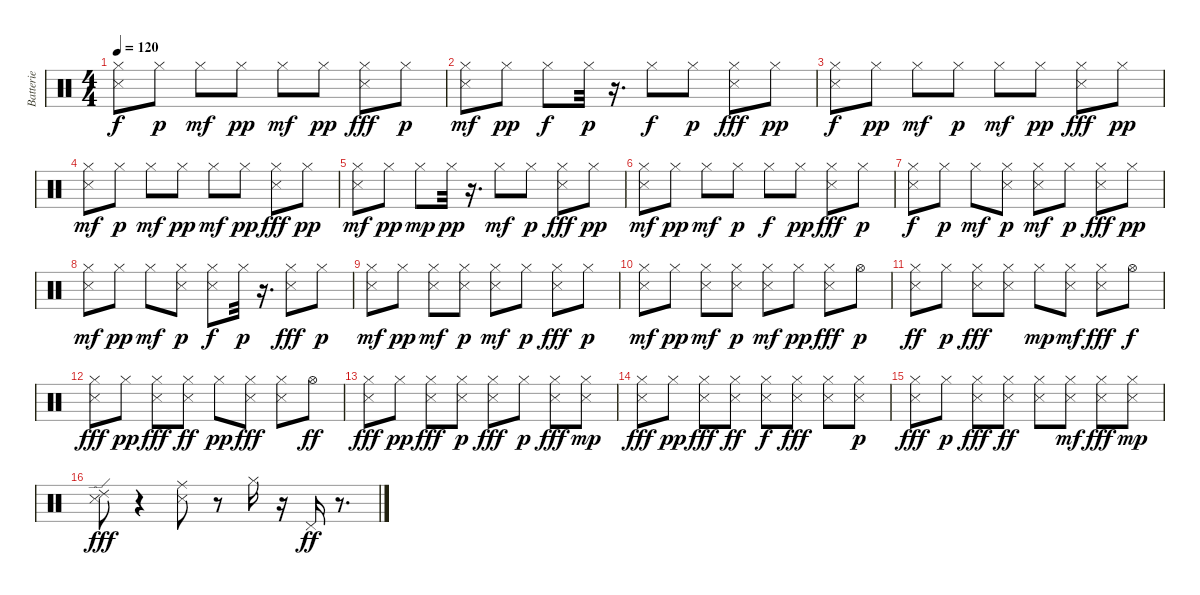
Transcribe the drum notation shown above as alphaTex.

\track ("Batterie" "Batterie") {instrument percussion}
\staff {score}
\articulation defaults
\ts (4 4)
\tempo 120
\clef neutral
\ks c
("Metronome (hit)" "Hi-Hat (closed)").8{dy f} "Hi-Hat (closed)".8{dy p} "Hi-Hat (closed)".8{dy mf} "Hi-Hat (closed)".8{dy pp} "Hi-Hat (closed)".8{dy mf} "Hi-Hat (closed)".8{dy pp} ("Snare (side stick) 3" "Hi-Hat (closed)").8{dy fff} "Hi-Hat (closed)".8{dy p} |
("Metronome (hit)" "Hi-Hat (closed)").8{dy mf} "Hi-Hat (closed)".8{dy pp} "Hi-Hat (closed)".8{dy f} "Hi-Hat (closed)".32{dy p} r.16{d} "Hi-Hat (closed)".8{dy f} "Hi-Hat (closed)".8{dy p} ("Snare (side stick) 3" "Hi-Hat (closed)").8{dy fff} "Hi-Hat (closed)".8{dy pp} |
("Metronome (hit)" "Hi-Hat (closed)").8{dy f} "Hi-Hat (closed)".8{dy pp} "Hi-Hat (closed)".8{dy mf} "Hi-Hat (closed)".8{dy p} "Hi-Hat (closed)".8{dy mf} "Hi-Hat (closed)".8{dy pp} ("Snare (side stick) 3" "Hi-Hat (closed)").8{dy fff} "Hi-Hat (closed)".8{dy pp} |
("Metronome (hit)" "Hi-Hat (closed)").8{dy mf} "Hi-Hat (closed)".8{dy p} "Hi-Hat (closed)".8{dy mf} "Hi-Hat (closed)".8{dy pp} "Hi-Hat (closed)".8{dy mf} "Hi-Hat (closed)".8{dy pp} ("Snare (side stick) 3" "Hi-Hat (closed)").8{dy fff} "Hi-Hat (closed)".8{dy pp} |
("Metronome (hit)" "Hi-Hat (closed)").8{dy mf} "Hi-Hat (closed)".8{dy pp} "Hi-Hat (closed)".8{dy mp} "Hi-Hat (closed)".32{dy pp} r.16{d} "Hi-Hat (closed)".8{dy mf} "Hi-Hat (closed)".8{dy p} ("Snare (side stick) 3" "Hi-Hat (closed)").8{dy fff} "Hi-Hat (closed)".8{dy pp} |
("Metronome (hit)" "Hi-Hat (closed)").8{dy mf} "Hi-Hat (closed)".8{dy pp} "Hi-Hat (closed)".8{dy mf} "Hi-Hat (closed)".8{dy p} "Hi-Hat (closed)".8{dy f} "Hi-Hat (closed)".8{dy pp} ("Snare (side stick) 3" "Hi-Hat (closed)").8{dy fff} "Hi-Hat (closed)".8{dy p} |
("Metronome (hit)" "Hi-Hat (closed)").8{dy f} "Hi-Hat (closed)".8{dy p} "Hi-Hat (closed)".8{dy mf} ("Metronome (hit)" "Hi-Hat (closed)").8{dy p} ("Metronome (hit)" "Hi-Hat (closed)").8{dy mf} "Hi-Hat (closed)".8{dy p} ("Snare (side stick) 3" "Hi-Hat (closed)").8{dy fff} "Hi-Hat (closed)".8{dy pp} |
("Metronome (hit)" "Hi-Hat (closed)").8{dy mf} "Hi-Hat (closed)".8{dy pp} "Hi-Hat (closed)".8{dy mf} ("Metronome (hit)" "Hi-Hat (closed)").8{dy p} ("Metronome (hit)" "Hi-Hat (closed)").8{dy f} "Hi-Hat (closed)".32{dy p} r.16{d} ("Snare (side stick) 3" "Hi-Hat (closed)").8{dy fff} "Hi-Hat (closed)".8{dy p} |
("Metronome (hit)" "Hi-Hat (closed)").8{dy mf} "Hi-Hat (closed)".8{dy pp} ("Snare (side stick) 3" "Hi-Hat (closed)").8{dy mf} ("Metronome (hit)" "Hi-Hat (closed)").8{dy p} ("Metronome (hit)" "Hi-Hat (closed)").8{dy mf} "Hi-Hat (closed)".8{dy p} ("Snare (side stick) 3" "Hi-Hat (closed)").8{dy fff} "Hi-Hat (closed)".8{dy p} |
("Metronome (hit)" "Hi-Hat (closed)").8{dy mf} "Hi-Hat (closed)".8{dy pp} ("Snare (side stick) 3" "Hi-Hat (closed)").8{dy mf} ("Metronome (hit)" "Hi-Hat (closed)").8{dy p} ("Metronome (hit)" "Hi-Hat (closed)").8{dy mf} "Hi-Hat (closed)".8{dy pp} ("Snare (side stick) 3" "Hi-Hat (closed)").8{dy fff} "Hi-Hat (open)".8{dy p} |
("Metronome (hit)" "Hi-Hat (closed)").8{dy ff} "Hi-Hat (closed)".8{dy p} ("Snare (side stick) 3" "Hi-Hat (closed)").8{dy fff} ("Metronome (hit)" "Hi-Hat (closed)").8 "Hi-Hat (closed)".8{dy mp} ("Metronome (hit)" "Hi-Hat (closed)").8{dy mf} ("Snare (side stick) 3" "Hi-Hat (closed)").8{dy fff} "Hi-Hat (open)".8{dy f} |
("Metronome (hit)" "Hi-Hat (closed)").8{dy fff} "Hi-Hat (closed)".8{dy pp} ("Snare (side stick) 3" "Hi-Hat (closed)").8{dy fff} ("Metronome (hit)" "Hi-Hat (closed)").8{dy ff} "Hi-Hat (closed)".8{dy pp} ("Metronome (hit)" "Hi-Hat (closed)").8{dy fff} ("Snare (side stick) 3" "Hi-Hat (closed)").8 "Hi-Hat (open)".8{dy ff} |
("Metronome (hit)" "Hi-Hat (closed)").8{dy fff} "Hi-Hat (closed)".8{dy pp} ("Snare (side stick) 3" "Hi-Hat (closed)").8{dy fff} ("Metronome (hit)" "Hi-Hat (closed)").8{dy p} ("Metronome (hit)" "Hi-Hat (closed)").8{dy fff} "Hi-Hat (closed)".8{dy p} ("Snare (side stick) 3" "Hi-Hat (closed)").8{dy fff} ("Metronome (hit)" "Hi-Hat (closed)").8{dy mp} |
("Metronome (hit)" "Hi-Hat (closed)").8{dy fff} "Hi-Hat (closed)".8{dy pp} ("Snare (side stick) 3" "Hi-Hat (closed)").8{dy fff} ("Metronome (hit)" "Hi-Hat (closed)").8{dy ff} ("Metronome (hit)" "Hi-Hat (closed)").8{dy f} ("Metronome (hit)" "Hi-Hat (closed)").8{dy fff} ("Snare (side stick) 3" "Hi-Hat (closed)").8 ("Metronome (hit)" "Hi-Hat (closed)").8{dy p} |
("Metronome (hit)" "Hi-Hat (closed)").8{dy fff} "Hi-Hat (closed)".8{dy p} ("Snare (side stick) 3" "Hi-Hat (closed)").8{dy fff} ("Metronome (hit)" "Hi-Hat (closed)").8{dy ff} ("Metronome (hit)" "Hi-Hat (closed)").8 ("Snare (side stick) 3" "Hi-Hat (closed)").8{dy mf} ("Snare (side stick) 3" "Hi-Hat (closed)").8{dy fff} ("Metronome (hit)" "Hi-Hat (closed)").8{dy mp} |
("Metronome (hit)" "Ride (edge) 2").8{dy fff} r.4 ("Metronome (hit)" "Ride (middle)").8 r.8 "Hi-Hat (closed)".16 r.16 "Pedal Hi-Hat (hit)".16{dy ff} r.8{d}
